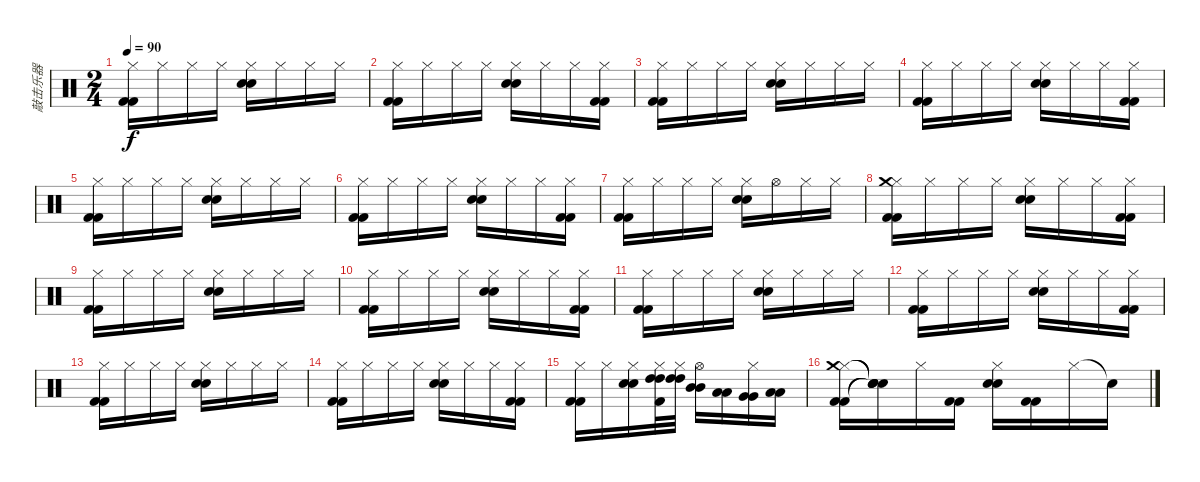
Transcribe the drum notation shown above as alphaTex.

\track ("敲击乐器" "敲击乐器") {instrument percussion}
\staff {score}
\articulation defaults
\ts (2 4)
\tempo 90
\clef neutral
\ks c
("Hi-Hat (closed)" "Kick (hit) 2" "Kick (hit) 2").16{dy f} "Hi-Hat (closed)".16 "Hi-Hat (closed)".16 "Hi-Hat (closed)".16 ("Hi-Hat (closed)" "Electric Snare (hit)" "Electric Snare (hit)").16 "Hi-Hat (closed)".16 "Hi-Hat (closed)".16 "Hi-Hat (closed)".16 |
("Hi-Hat (closed)" "Kick (hit) 2" "Kick (hit) 2").16 "Hi-Hat (closed)".16 "Hi-Hat (closed)".16 "Hi-Hat (closed)".16 ("Hi-Hat (closed)" "Electric Snare (hit)" "Electric Snare (hit)").16 "Hi-Hat (closed)".16 "Hi-Hat (closed)".16 ("Hi-Hat (closed)" "Kick (hit) 2" "Kick (hit) 2").16 |
("Hi-Hat (closed)" "Kick (hit) 2" "Kick (hit) 2").16 "Hi-Hat (closed)".16 "Hi-Hat (closed)".16 "Hi-Hat (closed)".16 ("Hi-Hat (closed)" "Electric Snare (hit)" "Electric Snare (hit)").16 "Hi-Hat (closed)".16 "Hi-Hat (closed)".16 "Hi-Hat (closed)".16 |
("Hi-Hat (closed)" "Kick (hit) 2" "Kick (hit) 2").16 "Hi-Hat (closed)".16 "Hi-Hat (closed)".16 "Hi-Hat (closed)".16 ("Hi-Hat (closed)" "Electric Snare (hit)" "Electric Snare (hit)").16 "Hi-Hat (closed)".16 "Hi-Hat (closed)".16 ("Hi-Hat (closed)" "Kick (hit) 2" "Kick (hit) 2").16 |
("Hi-Hat (closed)" "Kick (hit) 2" "Kick (hit) 2").16 "Hi-Hat (closed)".16 "Hi-Hat (closed)".16 "Hi-Hat (closed)".16 ("Hi-Hat (closed)" "Electric Snare (hit)" "Electric Snare (hit)").16 "Hi-Hat (closed)".16 "Hi-Hat (closed)".16 "Hi-Hat (closed)".16 |
("Hi-Hat (closed)" "Kick (hit) 2" "Kick (hit) 2").16 "Hi-Hat (closed)".16 "Hi-Hat (closed)".16 "Hi-Hat (closed)".16 ("Hi-Hat (closed)" "Electric Snare (hit)" "Electric Snare (hit)").16 "Hi-Hat (closed)".16 "Hi-Hat (closed)".16 ("Hi-Hat (closed)" "Kick (hit) 2" "Kick (hit) 2").16 |
("Hi-Hat (closed)" "Kick (hit) 2" "Kick (hit) 2").16 "Hi-Hat (closed)".16 "Hi-Hat (closed)".16 "Hi-Hat (closed)".16 ("Hi-Hat (closed)" "Electric Snare (hit)" "Electric Snare (hit)").16 "Hi-Hat (open)".16 "Hi-Hat (closed)".16 "Hi-Hat (closed)".16 |
("Hi-Hat (closed)" "Crash medium (hit)" "Kick (hit) 2" "Kick (hit) 2").16 "Hi-Hat (closed)".16 "Hi-Hat (closed)".16 "Hi-Hat (closed)".16 ("Hi-Hat (closed)" "Electric Snare (hit)" "Electric Snare (hit)").16 "Hi-Hat (closed)".16 "Hi-Hat (closed)".16 ("Hi-Hat (closed)" "Kick (hit) 2" "Kick (hit) 2").16 |
("Hi-Hat (closed)" "Kick (hit) 2" "Kick (hit) 2").16 "Hi-Hat (closed)".16 "Hi-Hat (closed)".16 "Hi-Hat (closed)".16 ("Hi-Hat (closed)" "Electric Snare (hit)" "Electric Snare (hit)").16 "Hi-Hat (closed)".16 "Hi-Hat (closed)".16 "Hi-Hat (closed)".16 |
("Hi-Hat (closed)" "Kick (hit) 2" "Kick (hit) 2").16 "Hi-Hat (closed)".16 "Hi-Hat (closed)".16 "Hi-Hat (closed)".16 ("Hi-Hat (closed)" "Electric Snare (hit)" "Electric Snare (hit)").16 "Hi-Hat (closed)".16 "Hi-Hat (closed)".16 ("Hi-Hat (closed)" "Kick (hit) 2" "Kick (hit) 2").16 |
("Hi-Hat (closed)" "Kick (hit) 2" "Kick (hit) 2").16 "Hi-Hat (closed)".16 "Hi-Hat (closed)".16 "Hi-Hat (closed)".16 ("Hi-Hat (closed)" "Electric Snare (hit)" "Electric Snare (hit)").16 "Hi-Hat (closed)".16 "Hi-Hat (closed)".16 "Hi-Hat (closed)".16 |
("Hi-Hat (closed)" "Kick (hit) 2" "Kick (hit) 2").16 "Hi-Hat (closed)".16 "Hi-Hat (closed)".16 "Hi-Hat (closed)".16 ("Hi-Hat (closed)" "Electric Snare (hit)" "Electric Snare (hit)").16 "Hi-Hat (closed)".16 "Hi-Hat (closed)".16 ("Hi-Hat (closed)" "Kick (hit) 2" "Kick (hit) 2").16 |
("Hi-Hat (closed)" "Kick (hit) 2" "Kick (hit) 2").16 "Hi-Hat (closed)".16 "Hi-Hat (closed)".16 "Hi-Hat (closed)".16 ("Hi-Hat (closed)" "Electric Snare (hit)" "Electric Snare (hit)").16 "Hi-Hat (closed)".16 "Hi-Hat (closed)".16 "Hi-Hat (closed)".16 |
("Hi-Hat (closed)" "Kick (hit) 2" "Kick (hit) 2").16 "Hi-Hat (closed)".16 "Hi-Hat (closed)".16 "Hi-Hat (closed)".16 ("Hi-Hat (closed)" "Electric Snare (hit)" "Electric Snare (hit)").16 "Hi-Hat (closed)".16 "Hi-Hat (closed)".16 ("Hi-Hat (closed)" "Kick (hit) 2" "Kick (hit) 2").16 |
("Hi-Hat (closed)" "Kick (hit) 2" "Kick (hit) 2").16 "Hi-Hat (closed)".16 ("Hi-Hat (closed)" "Electric Snare (hit)" "Electric Snare (hit)").16 ("Hi-Hat (closed)" "High Tom (hit)" "High Tom (hit)" "Kick (hit) 2").32 ("Hi-Hat (closed)" "High Tom (hit)" "High Tom (hit)").32 ("Hi-Hat (open)" "Mid Tom (hit)" "Mid Tom (hit)").16 ("Low Tom (hit)" "Low Tom (hit)").16 ("Hi-Hat (closed)" "Very Low Tom (hit)" "Very Low Tom (hit)").16 ("Low Floor Tom (hit)" "Low Floor Tom (hit)").16 |
("Hi-Hat (closed)" "Crash medium (hit)" "Kick (hit) 2" "Kick (hit) 2").16 ("Snare (hit)"{t} "Snare (hit)"{t} "Snare (hit)"{t} "Snare (hit)"{t}).16 "Hi-Hat (closed)".16 ("Kick (hit) 2" "Kick (hit) 2").16 ("Hi-Hat (closed)" "Electric Snare (hit)" "Electric Snare (hit)").16 ("Kick (hit) 2" "Kick (hit) 2").16 "Hi-Hat (closed)".16 "Snare (hit)"{t}.16
